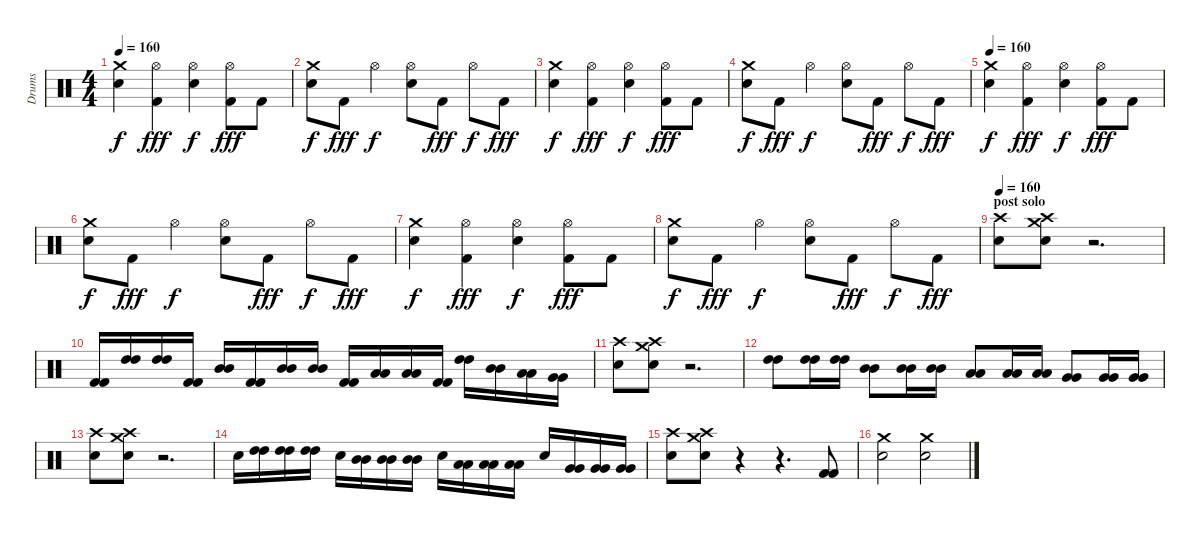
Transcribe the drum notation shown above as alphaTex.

\track ("Drums" "Drums") {instrument percussion}
\staff {score}
\articulation defaults
\ts (4 4)
\tempo 160
\clef neutral
\ks c
("Crash medium (hit)" "Electric Snare (hit)").4{dy f} ("Hi-Hat (open)" "Kick (hit) 2").4{dy fff} ("Hi-Hat (open)" "Electric Snare (hit)").4{dy f} ("Hi-Hat (open)" "Kick (hit) 2").8{dy fff} "Kick (hit) 2".8 |
("Crash medium (hit)" "Electric Snare (hit)").8{dy f} "Kick (hit) 2".8{dy fff} "Hi-Hat (open)".4{dy f} ("Hi-Hat (open)" "Electric Snare (hit)").8 "Kick (hit) 2".8{dy fff} "Hi-Hat (open)".8{dy f} "Kick (hit) 2".8{dy fff} |
("Crash medium (hit)" "Electric Snare (hit)").4{dy f} ("Hi-Hat (open)" "Kick (hit) 2").4{dy fff} ("Hi-Hat (open)" "Electric Snare (hit)").4{dy f} ("Hi-Hat (open)" "Kick (hit) 2").8{dy fff} "Kick (hit) 2".8 |
("Crash medium (hit)" "Electric Snare (hit)").8{dy f} "Kick (hit) 2".8{dy fff} "Hi-Hat (open)".4{dy f} ("Hi-Hat (open)" "Electric Snare (hit)").8 "Kick (hit) 2".8{dy fff} "Hi-Hat (open)".8{dy f} "Kick (hit) 2".8{dy fff} |
\tempo 160
("Crash medium (hit)" "Electric Snare (hit)").4{dy f} ("Hi-Hat (open)" "Kick (hit) 2").4{dy fff} ("Hi-Hat (open)" "Electric Snare (hit)").4{dy f} ("Hi-Hat (open)" "Kick (hit) 2").8{dy fff} "Kick (hit) 2".8 |
("Crash medium (hit)" "Electric Snare (hit)").8{dy f} "Kick (hit) 2".8{dy fff} "Hi-Hat (open)".4{dy f} ("Hi-Hat (open)" "Electric Snare (hit)").8 "Kick (hit) 2".8{dy fff} "Hi-Hat (open)".8{dy f} "Kick (hit) 2".8{dy fff} |
("Crash medium (hit)" "Electric Snare (hit)").4{dy f} ("Hi-Hat (open)" "Kick (hit) 2").4{dy fff} ("Hi-Hat (open)" "Electric Snare (hit)").4{dy f} ("Hi-Hat (open)" "Kick (hit) 2").8{dy fff} "Kick (hit) 2".8 |
("Crash medium (hit)" "Electric Snare (hit)").8{dy f} "Kick (hit) 2".8{dy fff} "Hi-Hat (open)".4{dy f} ("Hi-Hat (open)" "Electric Snare (hit)").8 "Kick (hit) 2".8{dy fff} "Hi-Hat (open)".8{dy f} "Kick (hit) 2".8{dy fff} |
\section ("" "post solo")
\tempo 160
("Crash high (hit)" "Electric Snare (hit)").8 ("Electric Snare (hit)" "Crash medium (hit)" "Crash high (hit)").8 r.2{d} |
("Kick (hit) 2" "Kick (hit) 2").16 ("High Tom (hit)" "High Tom (hit)").16 ("High Tom (hit)" "High Tom (hit)").16 ("Kick (hit) 2" "Kick (hit) 2").16 ("Mid Tom (hit)" "Mid Tom (hit)").16 ("Kick (hit) 2" "Kick (hit) 2").16 ("Mid Tom (hit)" "Mid Tom (hit)").16 ("Mid Tom (hit)" "Mid Tom (hit)").16 ("Kick (hit) 2" "Kick (hit) 2").16 ("Low Tom (hit)" "Low Tom (hit)").16 ("Low Tom (hit)" "Low Tom (hit)").16 ("Kick (hit) 2" "Kick (hit) 2").16 ("High Tom (hit)" "High Tom (hit)").16 ("Mid Tom (hit)" "Mid Tom (hit)").16 ("Low Tom (hit)" "Low Tom (hit)").16 ("Very Low Tom (hit)" "Very Low Tom (hit)").16 |
("Crash high (hit)" "Electric Snare (hit)").8 ("Electric Snare (hit)" "Crash medium (hit)" "Crash high (hit)").8 r.2{d} |
("High Tom (hit)" "High Tom (hit)").8 ("High Tom (hit)" "High Tom (hit)").16 ("High Tom (hit)" "High Tom (hit)").16 ("Mid Tom (hit)" "Mid Tom (hit)").8 ("Mid Tom (hit)" "Mid Tom (hit)").16 ("Mid Tom (hit)" "Mid Tom (hit)").16 ("Low Tom (hit)" "Low Tom (hit)").8 ("Low Tom (hit)" "Low Tom (hit)").16 ("Low Tom (hit)" "Low Tom (hit)").16 ("Very Low Tom (hit)" "Very Low Tom (hit)").8 ("Very Low Tom (hit)" "Very Low Tom (hit)").16 ("Very Low Tom (hit)" "Very Low Tom (hit)").16 |
("Crash high (hit)" "Electric Snare (hit)").8 ("Electric Snare (hit)" "Crash medium (hit)" "Crash high (hit)").8 r.2{d} |
"Electric Snare (hit)".16 ("High Tom (hit)" "High Tom (hit)").16 ("High Tom (hit)" "High Tom (hit)").16 ("High Tom (hit)" "High Tom (hit)").16 "Electric Snare (hit)".16 ("Mid Tom (hit)" "Mid Tom (hit)").16 ("Mid Tom (hit)" "Mid Tom (hit)").16 ("Mid Tom (hit)" "Mid Tom (hit)").16 "Electric Snare (hit)".16 ("Low Tom (hit)" "Low Tom (hit)").16 ("Low Tom (hit)" "Low Tom (hit)").16 ("Low Tom (hit)" "Low Tom (hit)").16 "Electric Snare (hit)".16 ("Very Low Tom (hit)" "Very Low Tom (hit)").16 ("Very Low Tom (hit)" "Very Low Tom (hit)").16 ("Very Low Tom (hit)" "Very Low Tom (hit)").16 |
("Crash high (hit)" "Electric Snare (hit)").8 ("Electric Snare (hit)" "Crash medium (hit)" "Crash high (hit)").8 r.4 r.4{d} ("Kick (hit) 2" "Kick (hit) 2").8 |
("Crash medium (hit)" "Electric Snare (hit)").2 ("Electric Snare (hit)" "Crash medium (hit)").2
